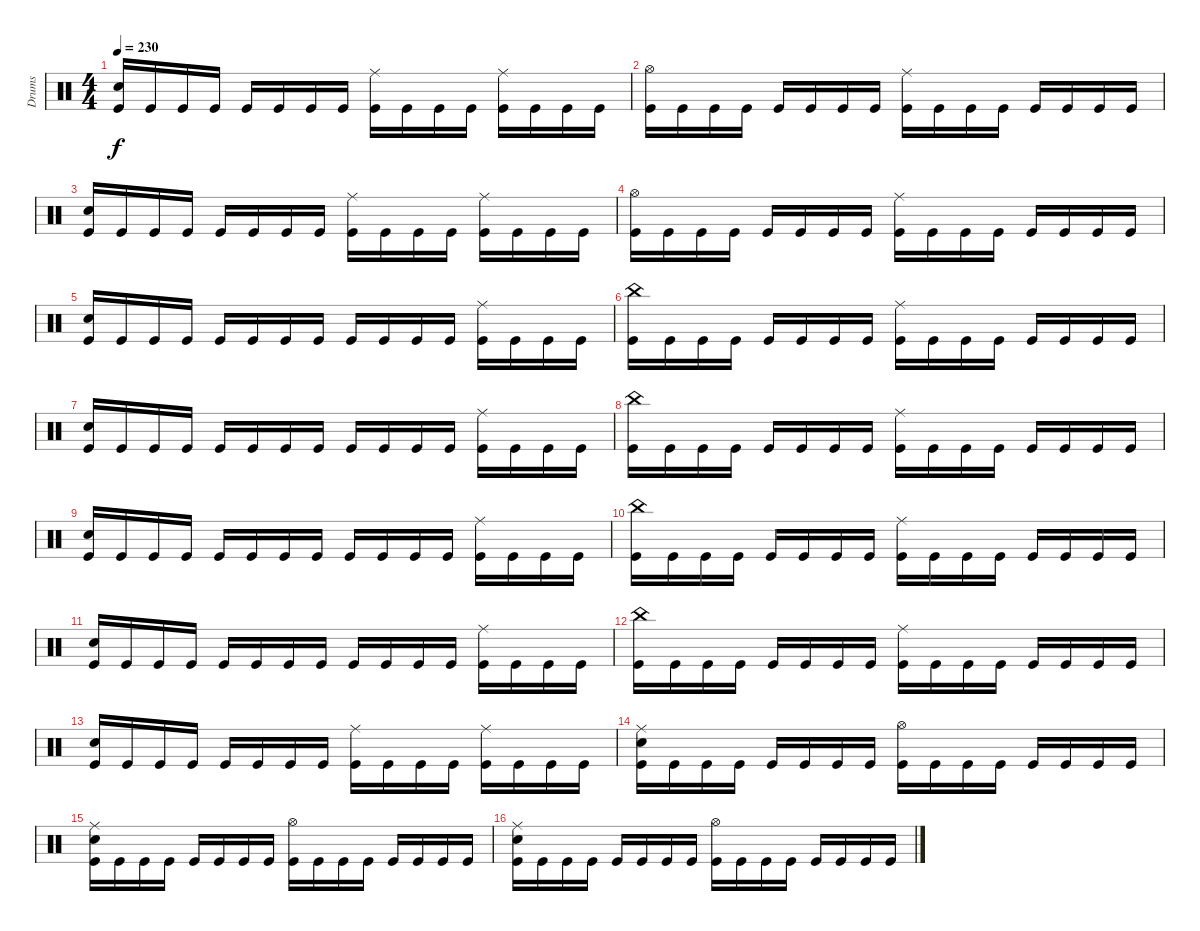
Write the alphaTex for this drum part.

\track ("Drums" "Drums") {instrument percussion}
\staff {score}
\articulation defaults
\ts (4 4)
\tempo 230
\clef neutral
\ks c
("Electric Snare (hit)" "Kick (hit)").16{dy f} "Kick (hit)".16 "Kick (hit)".16 "Kick (hit)".16 "Kick (hit)".16 "Kick (hit)".16 "Kick (hit)".16 "Kick (hit)".16 ("Ride (middle)" "Kick (hit)").16 "Kick (hit)".16 "Kick (hit)".16 "Kick (hit)".16 ("Ride (middle)" "Kick (hit)").16 "Kick (hit)".16 "Kick (hit)".16 "Kick (hit)".16 |
("Hi-Hat (open)" "Kick (hit)").16 "Kick (hit)".16 "Kick (hit)".16 "Kick (hit)".16 "Kick (hit)".16 "Kick (hit)".16 "Kick (hit)".16 "Kick (hit)".16 ("Ride (middle)" "Kick (hit)").16 "Kick (hit)".16 "Kick (hit)".16 "Kick (hit)".16 "Kick (hit)".16 "Kick (hit)".16 "Kick (hit)".16 "Kick (hit)".16 |
("Electric Snare (hit)" "Kick (hit)").16 "Kick (hit)".16 "Kick (hit)".16 "Kick (hit)".16 "Kick (hit)".16 "Kick (hit)".16 "Kick (hit)".16 "Kick (hit)".16 ("Ride (middle)" "Kick (hit)").16 "Kick (hit)".16 "Kick (hit)".16 "Kick (hit)".16 ("Ride (middle)" "Kick (hit)").16 "Kick (hit)".16 "Kick (hit)".16 "Kick (hit)".16 |
("Hi-Hat (open)" "Kick (hit)").16 "Kick (hit)".16 "Kick (hit)".16 "Kick (hit)".16 "Kick (hit)".16 "Kick (hit)".16 "Kick (hit)".16 "Kick (hit)".16 ("Ride (middle)" "Kick (hit)").16 "Kick (hit)".16 "Kick (hit)".16 "Kick (hit)".16 "Kick (hit)".16 "Kick (hit)".16 "Kick (hit)".16 "Kick (hit)".16 |
("Electric Snare (hit)" "Kick (hit)").16 "Kick (hit)".16 "Kick (hit)".16 "Kick (hit)".16 "Kick (hit)".16 "Kick (hit)".16 "Kick (hit)".16 "Kick (hit)".16 "Kick (hit)".16 "Kick (hit)".16 "Kick (hit)".16 "Kick (hit)".16 ("Ride (middle)" "Kick (hit)").16 "Kick (hit)".16 "Kick (hit)".16 "Kick (hit)".16 |
("China (hit)" "Kick (hit)").16 "Kick (hit)".16 "Kick (hit)".16 "Kick (hit)".16 "Kick (hit)".16 "Kick (hit)".16 "Kick (hit)".16 "Kick (hit)".16 ("Ride (middle)" "Kick (hit)").16 "Kick (hit)".16 "Kick (hit)".16 "Kick (hit)".16 "Kick (hit)".16 "Kick (hit)".16 "Kick (hit)".16 "Kick (hit)".16 |
("Electric Snare (hit)" "Kick (hit)").16 "Kick (hit)".16 "Kick (hit)".16 "Kick (hit)".16 "Kick (hit)".16 "Kick (hit)".16 "Kick (hit)".16 "Kick (hit)".16 "Kick (hit)".16 "Kick (hit)".16 "Kick (hit)".16 "Kick (hit)".16 ("Ride (middle)" "Kick (hit)").16 "Kick (hit)".16 "Kick (hit)".16 "Kick (hit)".16 |
("China (hit)" "Kick (hit)").16 "Kick (hit)".16 "Kick (hit)".16 "Kick (hit)".16 "Kick (hit)".16 "Kick (hit)".16 "Kick (hit)".16 "Kick (hit)".16 ("Ride (middle)" "Kick (hit)").16 "Kick (hit)".16 "Kick (hit)".16 "Kick (hit)".16 "Kick (hit)".16 "Kick (hit)".16 "Kick (hit)".16 "Kick (hit)".16 |
("Electric Snare (hit)" "Kick (hit)").16 "Kick (hit)".16 "Kick (hit)".16 "Kick (hit)".16 "Kick (hit)".16 "Kick (hit)".16 "Kick (hit)".16 "Kick (hit)".16 "Kick (hit)".16 "Kick (hit)".16 "Kick (hit)".16 "Kick (hit)".16 ("Ride (middle)" "Kick (hit)").16 "Kick (hit)".16 "Kick (hit)".16 "Kick (hit)".16 |
("China (hit)" "Kick (hit)").16 "Kick (hit)".16 "Kick (hit)".16 "Kick (hit)".16 "Kick (hit)".16 "Kick (hit)".16 "Kick (hit)".16 "Kick (hit)".16 ("Ride (middle)" "Kick (hit)").16 "Kick (hit)".16 "Kick (hit)".16 "Kick (hit)".16 "Kick (hit)".16 "Kick (hit)".16 "Kick (hit)".16 "Kick (hit)".16 |
("Electric Snare (hit)" "Kick (hit)").16 "Kick (hit)".16 "Kick (hit)".16 "Kick (hit)".16 "Kick (hit)".16 "Kick (hit)".16 "Kick (hit)".16 "Kick (hit)".16 "Kick (hit)".16 "Kick (hit)".16 "Kick (hit)".16 "Kick (hit)".16 ("Ride (middle)" "Kick (hit)").16 "Kick (hit)".16 "Kick (hit)".16 "Kick (hit)".16 |
("China (hit)" "Kick (hit)").16 "Kick (hit)".16 "Kick (hit)".16 "Kick (hit)".16 "Kick (hit)".16 "Kick (hit)".16 "Kick (hit)".16 "Kick (hit)".16 ("Ride (middle)" "Kick (hit)").16 "Kick (hit)".16 "Kick (hit)".16 "Kick (hit)".16 "Kick (hit)".16 "Kick (hit)".16 "Kick (hit)".16 "Kick (hit)".16 |
("Electric Snare (hit)" "Kick (hit)").16 "Kick (hit)".16 "Kick (hit)".16 "Kick (hit)".16 "Kick (hit)".16 "Kick (hit)".16 "Kick (hit)".16 "Kick (hit)".16 ("Ride (middle)" "Kick (hit)").16 "Kick (hit)".16 "Kick (hit)".16 "Kick (hit)".16 ("Ride (middle)" "Kick (hit)").16 "Kick (hit)".16 "Kick (hit)".16 "Kick (hit)".16 |
("Ride (middle)" "Electric Snare (hit)" "Kick (hit)").16 "Kick (hit)".16 "Kick (hit)".16 "Kick (hit)".16 "Kick (hit)".16 "Kick (hit)".16 "Kick (hit)".16 "Kick (hit)".16 ("Hi-Hat (open)" "Kick (hit)").16 "Kick (hit)".16 "Kick (hit)".16 "Kick (hit)".16 "Kick (hit)".16 "Kick (hit)".16 "Kick (hit)".16 "Kick (hit)".16 |
("Ride (middle)" "Electric Snare (hit)" "Kick (hit)").16 "Kick (hit)".16 "Kick (hit)".16 "Kick (hit)".16 "Kick (hit)".16 "Kick (hit)".16 "Kick (hit)".16 "Kick (hit)".16 ("Hi-Hat (open)" "Kick (hit)").16 "Kick (hit)".16 "Kick (hit)".16 "Kick (hit)".16 "Kick (hit)".16 "Kick (hit)".16 "Kick (hit)".16 "Kick (hit)".16 |
("Ride (middle)" "Electric Snare (hit)" "Kick (hit)").16 "Kick (hit)".16 "Kick (hit)".16 "Kick (hit)".16 "Kick (hit)".16 "Kick (hit)".16 "Kick (hit)".16 "Kick (hit)".16 ("Hi-Hat (open)" "Kick (hit)").16 "Kick (hit)".16 "Kick (hit)".16 "Kick (hit)".16 "Kick (hit)".16 "Kick (hit)".16 "Kick (hit)".16 "Kick (hit)".16
